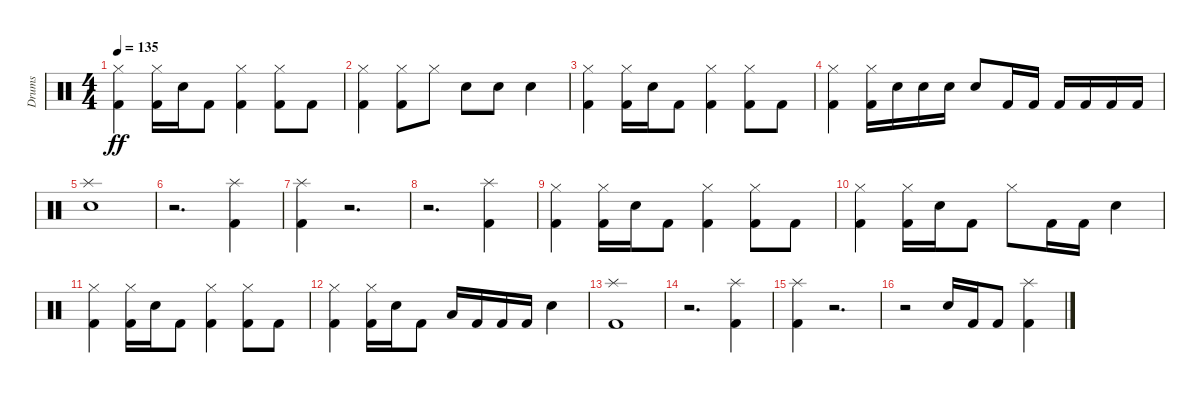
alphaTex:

\track ("Drums" "Drums") {instrument percussion}
\staff {score}
\articulation defaults
\ts (4 4)
\tempo 135
\clef neutral
\ks c
("Kick (hit) 2" "Hi-Hat (closed)").4{dy ff} ("Kick (hit) 2" "Hi-Hat (closed)").16 "Electric Snare (hit)".16 "Kick (hit) 2".8 ("Kick (hit) 2" "Hi-Hat (closed)").4 ("Kick (hit) 2" "Hi-Hat (closed)").8 "Kick (hit) 2".8 |
("Kick (hit) 2" "Hi-Hat (closed)").4 ("Kick (hit) 2" "Hi-Hat (closed)").8 "Hi-Hat (closed)".8 "Electric Snare (hit)".8 "Electric Snare (hit)".8 "Electric Snare (hit)".4 |
("Kick (hit) 2" "Hi-Hat (closed)").4 ("Kick (hit) 2" "Hi-Hat (closed)").16 "Electric Snare (hit)".16 "Kick (hit) 2".8 ("Kick (hit) 2" "Hi-Hat (closed)").4 ("Kick (hit) 2" "Hi-Hat (closed)").8 "Kick (hit) 2".8 |
("Kick (hit) 2" "Hi-Hat (closed)").4 ("Kick (hit) 2" "Hi-Hat (closed)").16 "Electric Snare (hit)".16 "Electric Snare (hit)".16 "Electric Snare (hit)".16 "Electric Snare (hit)".8 "Kick (hit) 2".16 "Kick (hit) 2".16 "Kick (hit) 2".16 "Kick (hit) 2".16 "Kick (hit) 2".16 "Kick (hit) 2".16 |
("Electric Snare (hit)" "Splash (hit)").1 |
r.2{d} ("Kick (hit) 2" "Splash (hit)").4 |
("Kick (hit) 2" "Splash (hit)").4 r.2{d} |
r.2{d} ("Kick (hit) 2" "Splash (hit)").4 |
("Kick (hit) 2" "Hi-Hat (closed)").4 ("Kick (hit) 2" "Hi-Hat (closed)").16 "Electric Snare (hit)".16 "Kick (hit) 2".8 ("Kick (hit) 2" "Hi-Hat (closed)").4 ("Kick (hit) 2" "Hi-Hat (closed)").8 "Kick (hit) 2".8 |
("Kick (hit) 2" "Hi-Hat (closed)").4 ("Kick (hit) 2" "Hi-Hat (closed)").16 "Electric Snare (hit)".16 "Kick (hit) 2".8 "Hi-Hat (closed)".8 "Kick (hit) 2".16 "Kick (hit) 2".16 "Electric Snare (hit)".4 |
("Kick (hit) 2" "Hi-Hat (closed)").4 ("Kick (hit) 2" "Hi-Hat (closed)").16 "Electric Snare (hit)".16 "Kick (hit) 2".8 ("Kick (hit) 2" "Hi-Hat (closed)").4 ("Kick (hit) 2" "Hi-Hat (closed)").8 "Kick (hit) 2".8 |
("Kick (hit) 2" "Hi-Hat (closed)").4 ("Kick (hit) 2" "Hi-Hat (closed)").16 "Electric Snare (hit)".16 "Kick (hit) 2".8 "Low Floor Tom (hit)".16 "Kick (hit) 2".16 "Kick (hit) 2".16 "Kick (hit) 2".16 "Electric Snare (hit)".4 |
("Kick (hit) 2" "Splash (hit)").1 |
r.2{d} ("Kick (hit) 2" "Splash (hit)").4 |
("Kick (hit) 2" "Splash (hit)").4 r.2{d} |
r.2 "Electric Snare (hit)".16 "Kick (hit) 2".16 "Kick (hit) 2".8 ("Kick (hit) 2" "Splash (hit)").4
